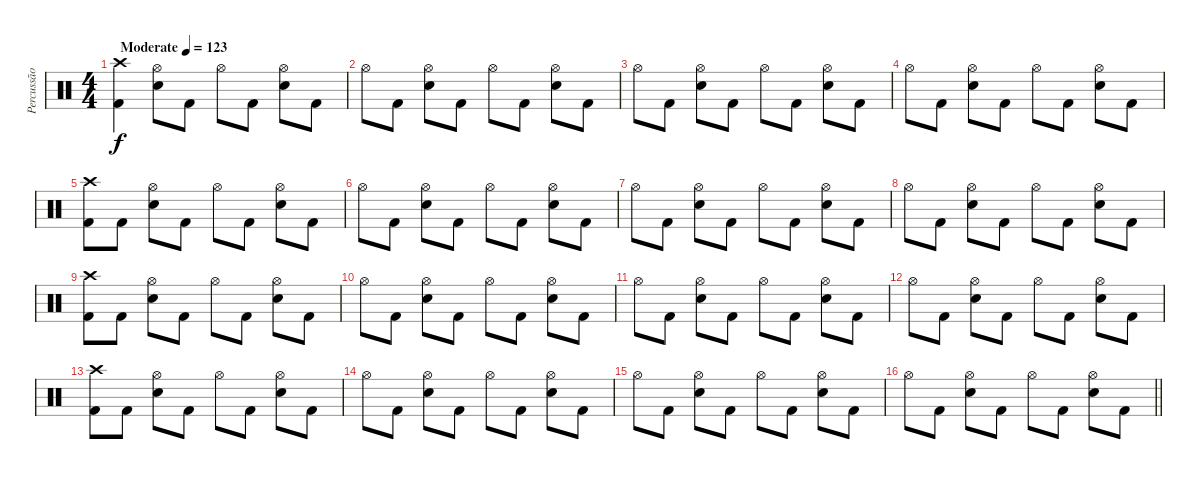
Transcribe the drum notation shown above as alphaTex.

\track ("Percussão" "Percussão") {instrument percussion}
\staff {score}
\articulation defaults
\ts (4 4)
\tempo (123 "Moderate")
\clef neutral
\ks c
("Crash high (hit)" "Kick (hit) 2").4{dy f} ("Hi-Hat (open)" "Snare (hit) 2").8{volume 10} "Kick (hit) 2".8 "Hi-Hat (open)".8 "Kick (hit) 2".8 ("Hi-Hat (open)" "Snare (hit) 2").8 "Kick (hit) 2".8 |
"Hi-Hat (open)".8 "Kick (hit) 2".8 ("Hi-Hat (open)" "Snare (hit) 2").8 "Kick (hit) 2".8 "Hi-Hat (open)".8 "Kick (hit) 2".8 ("Hi-Hat (open)" "Snare (hit) 2").8 "Kick (hit) 2".8 |
"Hi-Hat (open)".8 "Kick (hit) 2".8 ("Hi-Hat (open)" "Snare (hit) 2").8 "Kick (hit) 2".8 "Hi-Hat (open)".8 "Kick (hit) 2".8 ("Hi-Hat (open)" "Snare (hit) 2").8 "Kick (hit) 2".8 |
"Hi-Hat (open)".8 "Kick (hit) 2".8 ("Hi-Hat (open)" "Snare (hit) 2").8 "Kick (hit) 2".8 "Hi-Hat (open)".8 "Kick (hit) 2".8 ("Hi-Hat (open)" "Snare (hit) 2").8 "Kick (hit) 2".8 |
("Crash high (hit)" "Kick (hit) 2").8 "Kick (hit) 2".8 ("Hi-Hat (open)" "Snare (hit) 2").8 "Kick (hit) 2".8 "Hi-Hat (open)".8 "Kick (hit) 2".8 ("Hi-Hat (open)" "Snare (hit) 2").8 "Kick (hit) 2".8 |
"Hi-Hat (open)".8 "Kick (hit) 2".8 ("Hi-Hat (open)" "Snare (hit) 2").8 "Kick (hit) 2".8 "Hi-Hat (open)".8 "Kick (hit) 2".8 ("Hi-Hat (open)" "Snare (hit) 2").8 "Kick (hit) 2".8 |
"Hi-Hat (open)".8 "Kick (hit) 2".8 ("Hi-Hat (open)" "Snare (hit) 2").8 "Kick (hit) 2".8 "Hi-Hat (open)".8 "Kick (hit) 2".8 ("Hi-Hat (open)" "Snare (hit) 2").8 "Kick (hit) 2".8 |
"Hi-Hat (open)".8 "Kick (hit) 2".8 ("Hi-Hat (open)" "Snare (hit) 2").8 "Kick (hit) 2".8 "Hi-Hat (open)".8 "Kick (hit) 2".8 ("Hi-Hat (open)" "Snare (hit) 2").8 "Kick (hit) 2".8 |
("Crash high (hit)" "Kick (hit) 2").8 "Kick (hit) 2".8 ("Hi-Hat (open)" "Snare (hit) 2").8 "Kick (hit) 2".8 "Hi-Hat (open)".8 "Kick (hit) 2".8 ("Hi-Hat (open)" "Snare (hit) 2").8 "Kick (hit) 2".8 |
"Hi-Hat (open)".8 "Kick (hit) 2".8 ("Hi-Hat (open)" "Snare (hit) 2").8 "Kick (hit) 2".8 "Hi-Hat (open)".8 "Kick (hit) 2".8 ("Hi-Hat (open)" "Snare (hit) 2").8 "Kick (hit) 2".8 |
"Hi-Hat (open)".8 "Kick (hit) 2".8 ("Hi-Hat (open)" "Snare (hit) 2").8 "Kick (hit) 2".8 "Hi-Hat (open)".8 "Kick (hit) 2".8 ("Hi-Hat (open)" "Snare (hit) 2").8 "Kick (hit) 2".8 |
"Hi-Hat (open)".8 "Kick (hit) 2".8 ("Hi-Hat (open)" "Snare (hit) 2").8 "Kick (hit) 2".8 "Hi-Hat (open)".8 "Kick (hit) 2".8 ("Hi-Hat (open)" "Snare (hit) 2").8 "Kick (hit) 2".8 |
("Crash high (hit)" "Kick (hit) 2").8 "Kick (hit) 2".8 ("Hi-Hat (open)" "Snare (hit) 2").8 "Kick (hit) 2".8 "Hi-Hat (open)".8 "Kick (hit) 2".8 ("Hi-Hat (open)" "Snare (hit) 2").8 "Kick (hit) 2".8 |
"Hi-Hat (open)".8 "Kick (hit) 2".8 ("Hi-Hat (open)" "Snare (hit) 2").8 "Kick (hit) 2".8 "Hi-Hat (open)".8 "Kick (hit) 2".8 ("Hi-Hat (open)" "Snare (hit) 2").8 "Kick (hit) 2".8 |
"Hi-Hat (open)".8 "Kick (hit) 2".8 ("Hi-Hat (open)" "Snare (hit) 2").8 "Kick (hit) 2".8 "Hi-Hat (open)".8 "Kick (hit) 2".8 ("Hi-Hat (open)" "Snare (hit) 2").8 "Kick (hit) 2".8 |
\barLineRight lightlight "Hi-Hat (open)".8 "Kick (hit) 2".8
("Hi-Hat (open)" "Snare (hit) 2").8 "Kick (hit) 2".8 "Hi-Hat (open)".8 "Kick (hit) 2".8 ("Hi-Hat (open)" "Snare (hit) 2").8 "Kick (hit) 2".8
